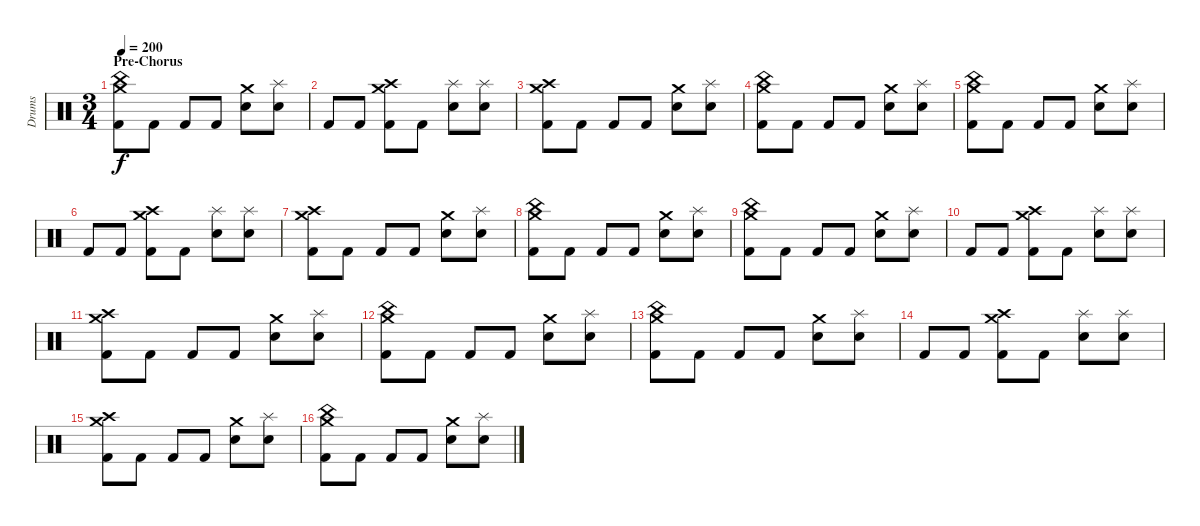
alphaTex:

\track ("Drums" "Drums") {instrument percussion}
\staff {score}
\articulation defaults
\ts (3 4)
\section ("" "Pre-Chorus")
\tempo 200
\clef neutral
\ks c
("China (hit)" "Crash medium (hit)" "Kick (hit) 2").8{dy f} "Kick (hit) 2".8 "Kick (hit) 2".8 "Kick (hit) 2".8 ("Crash medium (hit)" "Snare (hit) 2").8 ("Splash (hit)" "Snare (hit) 2").8 |
"Kick (hit) 2".8 "Kick (hit) 2".8 ("Crash medium (hit)" "Crash high (hit)" "Kick (hit) 2").8 "Kick (hit) 2".8 ("Splash (hit)" "Snare (hit) 2").8 ("Splash (hit)" "Snare (hit) 2").8 |
("Crash medium (hit)" "Crash high (hit)" "Kick (hit) 2").8 "Kick (hit) 2".8 "Kick (hit) 2".8 "Kick (hit) 2".8 ("Crash medium (hit)" "Snare (hit) 2").8 ("Splash (hit)" "Snare (hit) 2").8 |
("China (hit)" "Crash medium (hit)" "Kick (hit) 2").8 "Kick (hit) 2".8 "Kick (hit) 2".8 "Kick (hit) 2".8 ("Crash medium (hit)" "Snare (hit) 2").8 ("Splash (hit)" "Snare (hit) 2").8 |
("China (hit)" "Crash medium (hit)" "Kick (hit) 2").8 "Kick (hit) 2".8 "Kick (hit) 2".8 "Kick (hit) 2".8 ("Crash medium (hit)" "Snare (hit) 2").8 ("Splash (hit)" "Snare (hit) 2").8 |
"Kick (hit) 2".8 "Kick (hit) 2".8 ("Crash medium (hit)" "Crash high (hit)" "Kick (hit) 2").8 "Kick (hit) 2".8 ("Splash (hit)" "Snare (hit) 2").8 ("Splash (hit)" "Snare (hit) 2").8 |
("Crash medium (hit)" "Crash high (hit)" "Kick (hit) 2").8 "Kick (hit) 2".8 "Kick (hit) 2".8 "Kick (hit) 2".8 ("Crash medium (hit)" "Snare (hit) 2").8 ("Splash (hit)" "Snare (hit) 2").8 |
("China (hit)" "Crash medium (hit)" "Kick (hit) 2").8 "Kick (hit) 2".8 "Kick (hit) 2".8 "Kick (hit) 2".8 ("Crash medium (hit)" "Snare (hit) 2").8 ("Splash (hit)" "Snare (hit) 2").8 |
("China (hit)" "Crash medium (hit)" "Kick (hit) 2").8 "Kick (hit) 2".8 "Kick (hit) 2".8 "Kick (hit) 2".8 ("Crash medium (hit)" "Snare (hit) 2").8 ("Splash (hit)" "Snare (hit) 2").8 |
"Kick (hit) 2".8 "Kick (hit) 2".8 ("Crash medium (hit)" "Crash high (hit)" "Kick (hit) 2").8 "Kick (hit) 2".8 ("Splash (hit)" "Snare (hit) 2").8 ("Splash (hit)" "Snare (hit) 2").8 |
("Crash medium (hit)" "Crash high (hit)" "Kick (hit) 2").8 "Kick (hit) 2".8 "Kick (hit) 2".8 "Kick (hit) 2".8 ("Crash medium (hit)" "Snare (hit) 2").8 ("Splash (hit)" "Snare (hit) 2").8 |
("China (hit)" "Crash medium (hit)" "Kick (hit) 2").8 "Kick (hit) 2".8 "Kick (hit) 2".8 "Kick (hit) 2".8 ("Crash medium (hit)" "Snare (hit) 2").8 ("Splash (hit)" "Snare (hit) 2").8 |
("China (hit)" "Crash medium (hit)" "Kick (hit) 2").8 "Kick (hit) 2".8 "Kick (hit) 2".8 "Kick (hit) 2".8 ("Crash medium (hit)" "Snare (hit) 2").8 ("Splash (hit)" "Snare (hit) 2").8 |
"Kick (hit) 2".8 "Kick (hit) 2".8 ("Crash medium (hit)" "Crash high (hit)" "Kick (hit) 2").8 "Kick (hit) 2".8 ("Splash (hit)" "Snare (hit) 2").8 ("Splash (hit)" "Snare (hit) 2").8 |
("Crash medium (hit)" "Crash high (hit)" "Kick (hit) 2").8 "Kick (hit) 2".8 "Kick (hit) 2".8 "Kick (hit) 2".8 ("Crash medium (hit)" "Snare (hit) 2").8 ("Splash (hit)" "Snare (hit) 2").8 |
("China (hit)" "Crash medium (hit)" "Kick (hit) 2").8 "Kick (hit) 2".8 "Kick (hit) 2".8 "Kick (hit) 2".8 ("Crash medium (hit)" "Snare (hit) 2").8 ("Splash (hit)" "Snare (hit) 2").8
